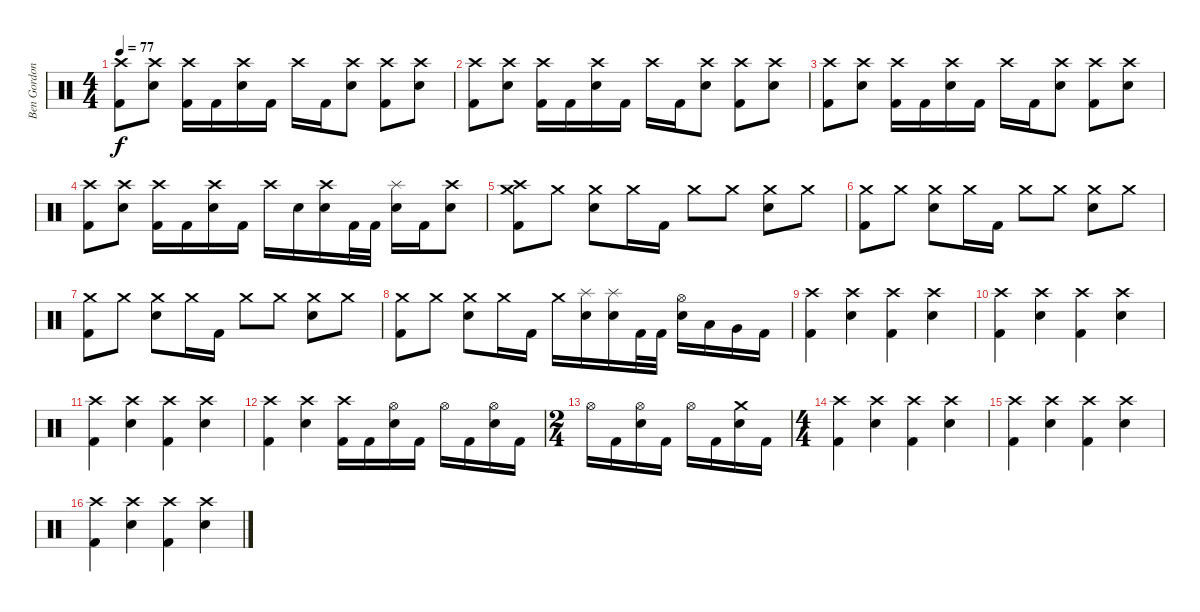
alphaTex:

\track ("Ben Gordon" "Ben Gordon") {instrument percussion}
\staff {score}
\articulation defaults
\ts (4 4)
\tempo 77
\clef neutral
\ks c
("Crash high (hit)" "Kick (hit) 2").8{dy f} ("Crash high (hit)" "Electric Snare (hit)").8 ("Crash high (hit)" "Kick (hit) 2").16 "Kick (hit) 2".16 ("Crash high (hit)" "Electric Snare (hit)").16 "Kick (hit) 2".16 "Crash high (hit)".16 "Kick (hit) 2".16 ("Crash high (hit)" "Electric Snare (hit)").8 ("Crash high (hit)" "Kick (hit) 2").8 ("Crash high (hit)" "Electric Snare (hit)").8 |
("Crash high (hit)" "Kick (hit) 2").8 ("Crash high (hit)" "Electric Snare (hit)").8 ("Crash high (hit)" "Kick (hit) 2").16 "Kick (hit) 2".16 ("Crash high (hit)" "Electric Snare (hit)").16 "Kick (hit) 2".16 "Crash high (hit)".16 "Kick (hit) 2".16 ("Crash high (hit)" "Electric Snare (hit)").8 ("Crash high (hit)" "Kick (hit) 2").8 ("Crash high (hit)" "Electric Snare (hit)").8 |
("Crash high (hit)" "Kick (hit) 2").8 ("Crash high (hit)" "Electric Snare (hit)").8 ("Crash high (hit)" "Kick (hit) 2").16 "Kick (hit) 2".16 ("Crash high (hit)" "Electric Snare (hit)").16 "Kick (hit) 2".16 "Crash high (hit)".16 "Kick (hit) 2".16 ("Crash high (hit)" "Electric Snare (hit)").8 ("Crash high (hit)" "Kick (hit) 2").8 ("Crash high (hit)" "Electric Snare (hit)").8 |
("Crash high (hit)" "Kick (hit) 2").8 ("Crash high (hit)" "Electric Snare (hit)").8 ("Crash high (hit)" "Kick (hit) 2").16 "Kick (hit) 2".16 ("Crash high (hit)" "Electric Snare (hit)").16 "Kick (hit) 2".16 "Crash high (hit)".16 "Electric Snare (hit)".16 ("Crash high (hit)" "Electric Snare (hit)").16 "Kick (hit) 2".32 "Kick (hit) 2".32 ("Splash (hit)" "Electric Snare (hit)").16 "Kick (hit) 2".16 ("Crash high (hit)" "Electric Snare (hit)").8 |
("Crash high (hit)" "Crash medium (hit)" "Kick (hit) 2").8 "Crash medium (hit)".8 ("Crash medium (hit)" "Electric Snare (hit)").8 "Crash medium (hit)".16 "Kick (hit) 2".16 "Crash medium (hit)".8 "Crash medium (hit)".8 ("Crash medium (hit)" "Electric Snare (hit)").8 "Crash medium (hit)".8 |
("Crash medium (hit)" "Kick (hit) 2").8 "Crash medium (hit)".8 ("Crash medium (hit)" "Electric Snare (hit)").8 "Crash medium (hit)".16 "Kick (hit) 2".16 "Crash medium (hit)".8 "Crash medium (hit)".8 ("Crash medium (hit)" "Electric Snare (hit)").8 "Crash medium (hit)".8 |
("Crash medium (hit)" "Kick (hit) 2").8 "Crash medium (hit)".8 ("Crash medium (hit)" "Electric Snare (hit)").8 "Crash medium (hit)".16 "Kick (hit) 2".16 "Crash medium (hit)".8 "Crash medium (hit)".8 ("Crash medium (hit)" "Electric Snare (hit)").8 "Crash medium (hit)".8 |
("Crash medium (hit)" "Kick (hit) 2").8 "Crash medium (hit)".8 ("Crash medium (hit)" "Electric Snare (hit)").8 "Crash medium (hit)".16 "Kick (hit) 2".16 "Crash medium (hit)".16 ("Splash (hit)" "Electric Snare (hit)").16 ("Splash (hit)" "Electric Snare (hit)").16 "Kick (hit) 2".32 "Kick (hit) 2".32 ("Hi-Hat (open)" "Electric Snare (hit)").16 "Low Tom (hit)".16 "Very Low Tom (hit)".16 "Kick (hit) 2".16 |
("Crash high (hit)" "Kick (hit) 2").4 ("Crash high (hit)" "Electric Snare (hit)").4 ("Crash high (hit)" "Kick (hit) 2").4 ("Crash high (hit)" "Electric Snare (hit)").4 |
("Crash high (hit)" "Kick (hit) 2").4 ("Crash high (hit)" "Electric Snare (hit)").4 ("Crash high (hit)" "Kick (hit) 2").4 ("Crash high (hit)" "Electric Snare (hit)").4 |
("Crash high (hit)" "Kick (hit) 2").4 ("Crash high (hit)" "Electric Snare (hit)").4 ("Crash high (hit)" "Kick (hit) 2").4 ("Crash high (hit)" "Electric Snare (hit)").4 |
("Crash high (hit)" "Kick (hit) 2").4 ("Crash high (hit)" "Electric Snare (hit)").4 ("Crash high (hit)" "Kick (hit) 2").16 "Kick (hit) 2".16 ("Hi-Hat (open)" "Electric Snare (hit)").16 "Kick (hit) 2".16 "Hi-Hat (open)".16 "Kick (hit) 2".16 ("Hi-Hat (open)" "Electric Snare (hit)").16 "Kick (hit) 2".16 |
\ts (2 4)
"Hi-Hat (open)".16 "Kick (hit) 2".16 ("Hi-Hat (open)" "Electric Snare (hit)").16 "Kick (hit) 2".16 "Hi-Hat (open)".16 "Kick (hit) 2".16 ("Crash medium (hit)" "Electric Snare (hit)").16 "Kick (hit) 2".16 |
\ts (4 4)
("Crash high (hit)" "Kick (hit) 2").4 ("Crash high (hit)" "Electric Snare (hit)").4 ("Crash high (hit)" "Kick (hit) 2").4 ("Crash high (hit)" "Electric Snare (hit)").4 |
("Crash high (hit)" "Kick (hit) 2").4 ("Crash high (hit)" "Electric Snare (hit)").4 ("Crash high (hit)" "Kick (hit) 2").4 ("Crash high (hit)" "Electric Snare (hit)").4 |
("Crash high (hit)" "Kick (hit) 2").4 ("Crash high (hit)" "Electric Snare (hit)").4 ("Crash high (hit)" "Kick (hit) 2").4 ("Crash high (hit)" "Electric Snare (hit)").4
